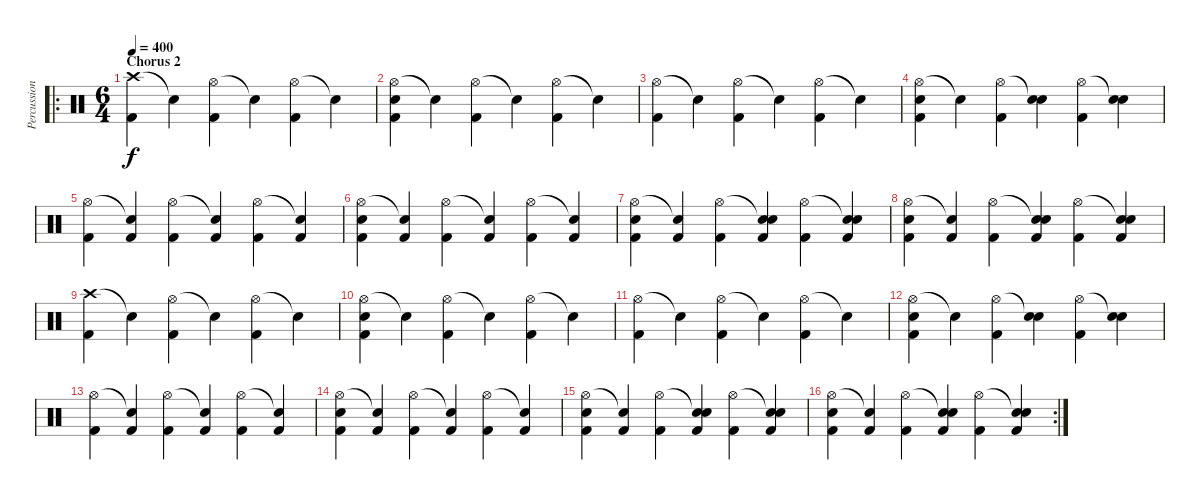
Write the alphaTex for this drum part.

\track ("Percussion" "Percussion") {instrument percussion}
\staff {score}
\articulation defaults
\ro
\ts (6 4)
\section ("" "Chorus 2")
\tempo 400
\clef neutral
\ks c
("Crash high (hit)" "Kick (hit) 2").4{dy f} "Snare (hit)"{t}.4 ("Hi-Hat (open)" "Kick (hit) 2").4 "Snare (hit)"{t}.4 ("Hi-Hat (open)" "Kick (hit) 2").4 "Snare (hit)"{t}.4 |
("Hi-Hat (open)" "Kick (hit) 2" "Snare (hit) 2").4 "Snare (hit)"{t}.4 ("Hi-Hat (open)" "Kick (hit) 2").4 "Snare (hit)"{t}.4 ("Hi-Hat (open)" "Kick (hit) 2").4 "Snare (hit)"{t}.4 |
("Hi-Hat (open)" "Kick (hit) 2").4 "Snare (hit)"{t}.4 ("Hi-Hat (open)" "Kick (hit) 2").4 "Snare (hit)"{t}.4 ("Hi-Hat (open)" "Kick (hit) 2").4 "Snare (hit)"{t}.4 |
("Hi-Hat (open)" "Kick (hit) 2" "Snare (hit) 2").4 "Snare (hit)"{t}.4 ("Hi-Hat (open)" "Kick (hit) 2").4 ("Snare (hit)"{t} "Snare (hit) 2").4 ("Hi-Hat (open)" "Kick (hit) 2").4 ("Snare (hit)"{t} "Snare (hit) 2").4 |
("Hi-Hat (open)" "Kick (hit) 2").4 ("Snare (hit)"{t} "Kick (hit) 2").4 ("Hi-Hat (open)" "Kick (hit) 2").4 ("Snare (hit)"{t} "Kick (hit) 2").4 ("Hi-Hat (open)" "Kick (hit) 2").4 ("Snare (hit)"{t} "Kick (hit) 2").4 |
("Hi-Hat (open)" "Kick (hit) 2" "Snare (hit) 2").4 ("Snare (hit)"{t} "Kick (hit) 2").4 ("Hi-Hat (open)" "Kick (hit) 2").4 ("Snare (hit)"{t} "Kick (hit) 2").4 ("Hi-Hat (open)" "Kick (hit) 2").4 ("Snare (hit)"{t} "Kick (hit) 2").4 |
("Hi-Hat (open)" "Snare (hit) 2" "Kick (hit) 2").4 ("Snare (hit)"{t} "Kick (hit) 2").4 ("Hi-Hat (open)" "Kick (hit) 2").4 ("Snare (hit)"{t} "Snare (hit) 2" "Kick (hit) 2").4 ("Hi-Hat (open)" "Kick (hit) 2").4 ("Snare (hit)"{t} "Snare (hit) 2" "Kick (hit) 2").4 |
("Hi-Hat (open)" "Kick (hit) 2" "Snare (hit) 2").4 ("Snare (hit)"{t} "Kick (hit) 2").4 ("Hi-Hat (open)" "Kick (hit) 2").4 ("Snare (hit)"{t} "Snare (hit) 2" "Kick (hit) 2").4 ("Hi-Hat (open)" "Kick (hit) 2").4 ("Snare (hit)"{t} "Kick (hit) 2" "Snare (hit) 2").4 |
("Crash high (hit)" "Kick (hit) 2").4 "Snare (hit)"{t}.4 ("Hi-Hat (open)" "Kick (hit) 2").4 "Snare (hit)"{t}.4 ("Hi-Hat (open)" "Kick (hit) 2").4 "Snare (hit)"{t}.4 |
("Hi-Hat (open)" "Kick (hit) 2" "Snare (hit) 2").4 "Snare (hit)"{t}.4 ("Hi-Hat (open)" "Kick (hit) 2").4 "Snare (hit)"{t}.4 ("Hi-Hat (open)" "Kick (hit) 2").4 "Snare (hit)"{t}.4 |
("Hi-Hat (open)" "Kick (hit) 2").4 "Snare (hit)"{t}.4 ("Hi-Hat (open)" "Kick (hit) 2").4 "Snare (hit)"{t}.4 ("Hi-Hat (open)" "Kick (hit) 2").4 "Snare (hit)"{t}.4 |
("Hi-Hat (open)" "Kick (hit) 2" "Snare (hit) 2").4 "Snare (hit)"{t}.4 ("Hi-Hat (open)" "Kick (hit) 2").4 ("Snare (hit)"{t} "Snare (hit) 2").4 ("Hi-Hat (open)" "Kick (hit) 2").4 ("Snare (hit)"{t} "Snare (hit) 2").4 |
("Hi-Hat (open)" "Kick (hit) 2").4 ("Snare (hit)"{t} "Kick (hit) 2").4 ("Hi-Hat (open)" "Kick (hit) 2").4 ("Snare (hit)"{t} "Kick (hit) 2").4 ("Hi-Hat (open)" "Kick (hit) 2").4 ("Snare (hit)"{t} "Kick (hit) 2").4 |
("Hi-Hat (open)" "Kick (hit) 2" "Snare (hit) 2").4 ("Snare (hit)"{t} "Kick (hit) 2").4 ("Hi-Hat (open)" "Kick (hit) 2").4 ("Snare (hit)"{t} "Kick (hit) 2").4 ("Hi-Hat (open)" "Kick (hit) 2").4 ("Snare (hit)"{t} "Kick (hit) 2").4 |
("Hi-Hat (open)" "Snare (hit) 2" "Kick (hit) 2").4 ("Snare (hit)"{t} "Kick (hit) 2").4 ("Hi-Hat (open)" "Kick (hit) 2").4 ("Snare (hit)"{t} "Snare (hit) 2" "Kick (hit) 2").4 ("Hi-Hat (open)" "Kick (hit) 2").4 ("Snare (hit)"{t} "Snare (hit) 2" "Kick (hit) 2").4 |
\rc 2
("Hi-Hat (open)" "Kick (hit) 2" "Snare (hit) 2").4 ("Snare (hit)"{t} "Kick (hit) 2").4 ("Hi-Hat (open)" "Kick (hit) 2").4 ("Snare (hit)"{t} "Snare (hit) 2" "Kick (hit) 2").4 ("Hi-Hat (open)" "Kick (hit) 2").4 ("Snare (hit)"{t} "Kick (hit) 2" "Snare (hit) 2").4
